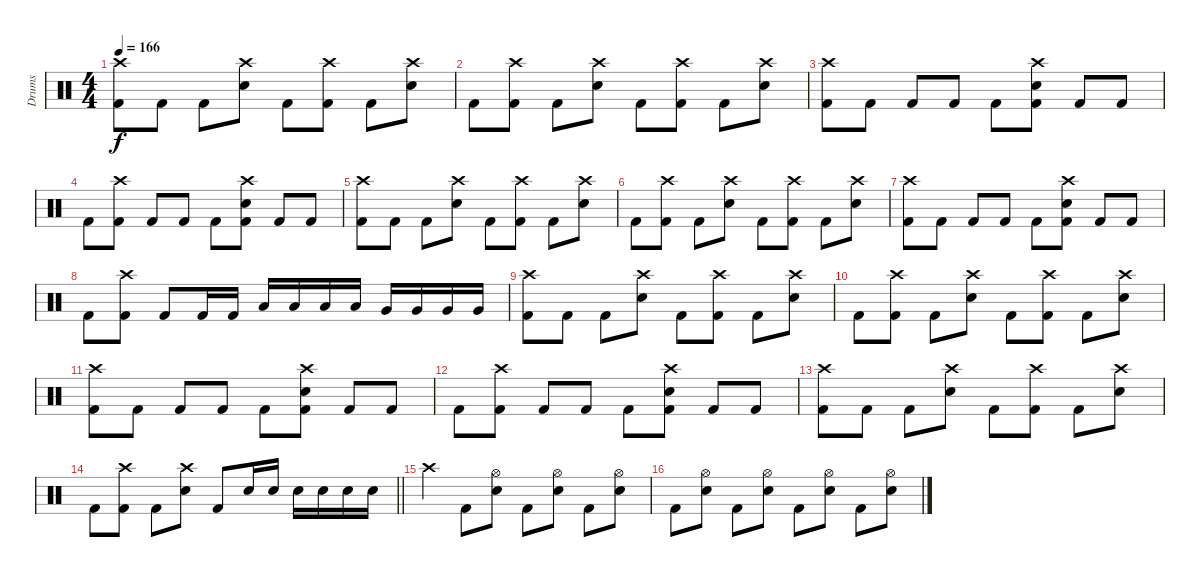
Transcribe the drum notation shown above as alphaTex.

\track ("Drums" "Drums") {instrument percussion}
\staff {score}
\articulation defaults
\ts (4 4)
\tempo 166
\clef neutral
\ks c
("Crash high (hit)" "Kick (hit) 2").8{dy f} "Kick (hit) 2".8 "Kick (hit) 2".8 ("Crash high (hit)" "Snare (hit) 2").8 "Kick (hit) 2".8 ("Crash high (hit)" "Kick (hit) 2").8 "Kick (hit) 2".8 ("Crash high (hit)" "Snare (hit) 2").8 |
"Kick (hit) 2".8 ("Crash high (hit)" "Kick (hit) 2").8 "Kick (hit) 2".8 ("Crash high (hit)" "Snare (hit) 2").8 "Kick (hit) 2".8 ("Crash high (hit)" "Kick (hit) 2").8 "Kick (hit) 2".8 ("Crash high (hit)" "Snare (hit) 2").8 |
("Crash high (hit)" "Kick (hit) 2").8 "Kick (hit) 2".8 "Kick (hit) 2".8 "Kick (hit) 2".8 "Kick (hit) 2".8 ("Crash high (hit)" "Snare (hit) 2" "Kick (hit) 2").8 "Kick (hit) 2".8 "Kick (hit) 2".8 |
"Kick (hit) 2".8 ("Crash high (hit)" "Kick (hit) 2").8 "Kick (hit) 2".8 "Kick (hit) 2".8 "Kick (hit) 2".8 ("Crash high (hit)" "Snare (hit) 2" "Kick (hit) 2").8 "Kick (hit) 2".8 "Kick (hit) 2".8 |
("Crash high (hit)" "Kick (hit) 2").8 "Kick (hit) 2".8 "Kick (hit) 2".8 ("Crash high (hit)" "Snare (hit) 2").8 "Kick (hit) 2".8 ("Crash high (hit)" "Kick (hit) 2").8 "Kick (hit) 2".8 ("Crash high (hit)" "Snare (hit) 2").8 |
"Kick (hit) 2".8 ("Crash high (hit)" "Kick (hit) 2").8 "Kick (hit) 2".8 ("Crash high (hit)" "Snare (hit) 2").8 "Kick (hit) 2".8 ("Crash high (hit)" "Kick (hit) 2").8 "Kick (hit) 2".8 ("Crash high (hit)" "Snare (hit) 2").8 |
("Crash high (hit)" "Kick (hit) 2").8 "Kick (hit) 2".8 "Kick (hit) 2".8 "Kick (hit) 2".8 "Kick (hit) 2".8 ("Crash high (hit)" "Snare (hit) 2" "Kick (hit) 2").8 "Kick (hit) 2".8 "Kick (hit) 2".8 |
"Kick (hit) 2".8 ("Crash high (hit)" "Kick (hit) 2").8 "Kick (hit) 2".8 "Kick (hit) 2".16 "Kick (hit) 2".16 "Low Tom (hit)".16 "Low Tom (hit)".16 "Low Tom (hit)".16 "Low Tom (hit)".16 "Very Low Tom (hit)".16 "Very Low Tom (hit)".16 "Very Low Tom (hit)".16 "Very Low Tom (hit)".16 |
("Crash high (hit)" "Kick (hit) 2").8 "Kick (hit) 2".8 "Kick (hit) 2".8 ("Crash high (hit)" "Snare (hit) 2").8 "Kick (hit) 2".8 ("Crash high (hit)" "Kick (hit) 2").8 "Kick (hit) 2".8 ("Crash high (hit)" "Snare (hit) 2").8 |
"Kick (hit) 2".8 ("Crash high (hit)" "Kick (hit) 2").8 "Kick (hit) 2".8 ("Crash high (hit)" "Snare (hit) 2").8 "Kick (hit) 2".8 ("Crash high (hit)" "Kick (hit) 2").8 "Kick (hit) 2".8 ("Crash high (hit)" "Snare (hit) 2").8 |
("Crash high (hit)" "Kick (hit) 2").8 "Kick (hit) 2".8 "Kick (hit) 2".8 "Kick (hit) 2".8 "Kick (hit) 2".8 ("Crash high (hit)" "Snare (hit) 2" "Kick (hit) 2").8 "Kick (hit) 2".8 "Kick (hit) 2".8 |
"Kick (hit) 2".8 ("Crash high (hit)" "Kick (hit) 2").8 "Kick (hit) 2".8 "Kick (hit) 2".8 "Kick (hit) 2".8 ("Crash high (hit)" "Snare (hit) 2" "Kick (hit) 2").8 "Kick (hit) 2".8 "Kick (hit) 2".8 |
("Crash high (hit)" "Kick (hit) 2").8 "Kick (hit) 2".8 "Kick (hit) 2".8 ("Crash high (hit)" "Snare (hit) 2").8 "Kick (hit) 2".8 ("Crash high (hit)" "Kick (hit) 2").8 "Kick (hit) 2".8 ("Crash high (hit)" "Snare (hit) 2").8 |
\barLineRight lightlight "Kick (hit) 2".8
("Crash high (hit)" "Kick (hit) 2").8 "Kick (hit) 2".8 ("Crash high (hit)" "Snare (hit) 2").8 "Kick (hit) 2".8 "Snare (hit) 2".16 "Snare (hit) 2".16 "Snare (hit) 2".16 "Snare (hit) 2".16 "Snare (hit) 2".16 "Snare (hit) 2".16 |
"Crash high (hit)".4 "Kick (hit) 2".8 ("Hi-Hat (open)" "Snare (hit) 2").8 "Kick (hit) 2".8 ("Hi-Hat (open)" "Snare (hit) 2").8 "Kick (hit) 2".8 ("Hi-Hat (open)" "Snare (hit) 2").8 |
"Kick (hit) 2".8 ("Hi-Hat (open)" "Snare (hit) 2").8 "Kick (hit) 2".8 ("Hi-Hat (open)" "Snare (hit) 2").8 "Kick (hit) 2".8 ("Hi-Hat (open)" "Snare (hit) 2").8 "Kick (hit) 2".8 ("Hi-Hat (open)" "Snare (hit) 2").8
